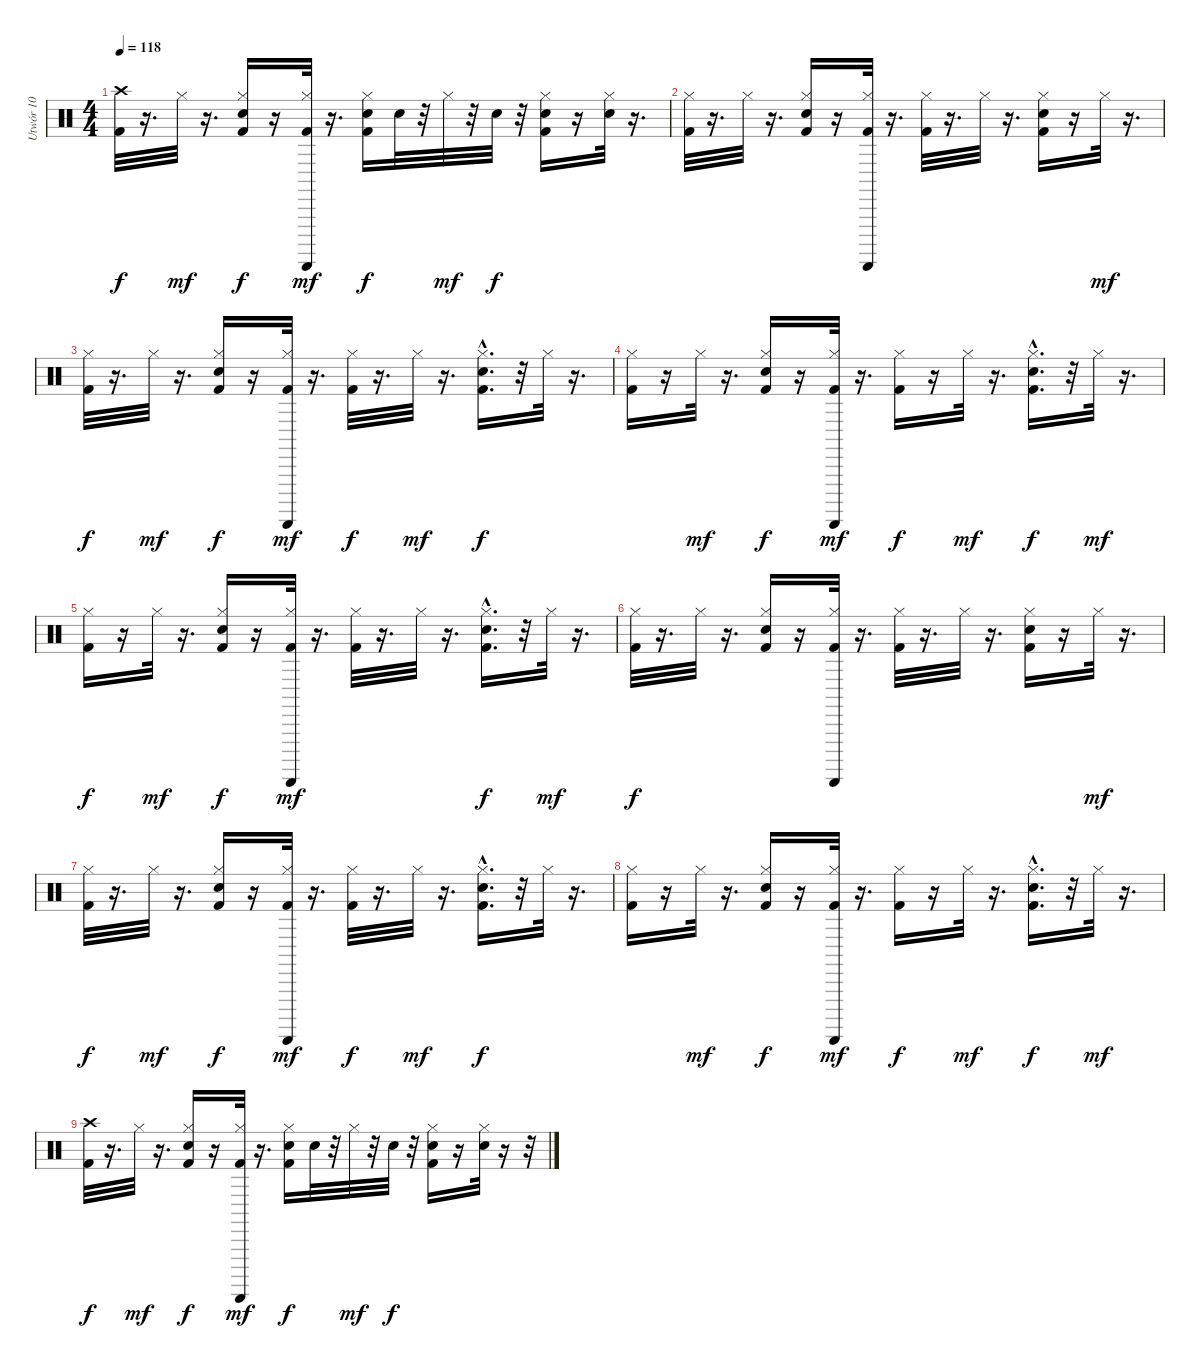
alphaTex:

\track ("Utwór 10" "Utwór 10") {instrument percussion}
\staff {score}
\articulation defaults
\ts (4 4)
\tempo 118
\clef neutral
\ks c
("Kick (hit) 2" "Crash high (hit)").32{dy f} r.16{d} "Hi-Hat (closed)".32{dy mf} r.16{d} ("Kick (hit) 2" "Snare (hit) 2" "Hi-Hat (closed)").16{dy f} r.16 ("Kick (hit) 2" "Hi-Hat (closed)" "Guiro (scrap-return)").32{dy mf} r.16{d} ("Kick (hit) 2" "Snare (hit) 2" "Hi-Hat (closed)").16{dy f} "Snare (hit) 2".32 r.32 "Hi-Hat (closed)".32{dy mf} r.32 "Snare (hit) 2".32{dy f} r.32 ("Kick (hit) 2" "Snare (hit) 2" "Hi-Hat (closed)").16 r.16 ("Snare (hit) 2" "Hi-Hat (closed)").32 r.16{d} |
("Kick (hit) 2" "Hi-Hat (closed)").32 r.16{d} "Hi-Hat (closed)".32 r.16{d} ("Kick (hit) 2" "Snare (hit) 2" "Hi-Hat (closed)").16 r.16 ("Kick (hit) 2" "Hi-Hat (closed)" "Guiro (scrap-return)").32 r.16{d} ("Kick (hit) 2" "Hi-Hat (closed)").32 r.16{d} "Hi-Hat (closed)".32 r.16{d} ("Kick (hit) 2" "Snare (hit) 2" "Hi-Hat (closed)").16 r.16 "Hi-Hat (closed)".32{dy mf} r.16{d} |
("Kick (hit) 2" "Hi-Hat (closed)").32{dy f} r.16{d} "Hi-Hat (closed)".32{dy mf} r.16{d} ("Kick (hit) 2" "Snare (hit) 2" "Hi-Hat (closed)").16{dy f} r.16 ("Kick (hit) 2" "Hi-Hat (closed)" "Guiro (scrap-return)").32{dy mf} r.16{d} ("Kick (hit) 2" "Hi-Hat (closed)").32{dy f} r.16{d} "Hi-Hat (closed)".32{dy mf} r.16{d} ("Kick (hit) 2" "Snare (hit) 2"{hac} "Hi-Hat (closed)").16{d dy f} r.32 "Hi-Hat (closed)".32 r.16{d} |
("Kick (hit) 2" "Hi-Hat (closed)").16 r.16 "Hi-Hat (closed)".32{dy mf} r.16{d} ("Kick (hit) 2" "Snare (hit) 2" "Hi-Hat (closed)").16{dy f} r.16 ("Kick (hit) 2" "Hi-Hat (closed)" "Guiro (scrap-return)").32{dy mf} r.16{d} ("Kick (hit) 2" "Hi-Hat (closed)").16{dy f} r.16 "Hi-Hat (closed)".32{dy mf} r.16{d} ("Kick (hit) 2" "Snare (hit) 2"{hac} "Hi-Hat (closed)").16{d dy f} r.32 "Hi-Hat (closed)".32{dy mf} r.16{d} |
("Kick (hit) 2" "Hi-Hat (closed)").16{dy f} r.16 "Hi-Hat (closed)".32{dy mf} r.16{d} ("Kick (hit) 2" "Snare (hit) 2" "Hi-Hat (closed)").16{dy f} r.16 ("Kick (hit) 2" "Hi-Hat (closed)" "Guiro (scrap-return)").32{dy mf} r.16{d} ("Kick (hit) 2" "Hi-Hat (closed)").32 r.16{d} "Hi-Hat (closed)".32 r.16{d} ("Kick (hit) 2" "Snare (hit) 2"{hac} "Hi-Hat (closed)").16{d dy f} r.32 "Hi-Hat (closed)".32{dy mf} r.16{d} |
("Kick (hit) 2" "Hi-Hat (closed)").32{dy f} r.16{d} "Hi-Hat (closed)".32 r.16{d} ("Kick (hit) 2" "Snare (hit) 2" "Hi-Hat (closed)").16 r.16 ("Kick (hit) 2" "Hi-Hat (closed)" "Guiro (scrap-return)").32 r.16{d} ("Kick (hit) 2" "Hi-Hat (closed)").32 r.16{d} "Hi-Hat (closed)".32 r.16{d} ("Kick (hit) 2" "Snare (hit) 2" "Hi-Hat (closed)").16 r.16 "Hi-Hat (closed)".32{dy mf} r.16{d} |
("Kick (hit) 2" "Hi-Hat (closed)").32{dy f} r.16{d} "Hi-Hat (closed)".32{dy mf} r.16{d} ("Kick (hit) 2" "Snare (hit) 2" "Hi-Hat (closed)").16{dy f} r.16 ("Kick (hit) 2" "Hi-Hat (closed)" "Guiro (scrap-return)").32{dy mf} r.16{d} ("Kick (hit) 2" "Hi-Hat (closed)").32{dy f} r.16{d} "Hi-Hat (closed)".32{dy mf} r.16{d} ("Kick (hit) 2" "Snare (hit) 2"{hac} "Hi-Hat (closed)").16{d dy f} r.32 "Hi-Hat (closed)".32 r.16{d} |
("Kick (hit) 2" "Hi-Hat (closed)").16 r.16 "Hi-Hat (closed)".32{dy mf} r.16{d} ("Kick (hit) 2" "Snare (hit) 2" "Hi-Hat (closed)").16{dy f} r.16 ("Kick (hit) 2" "Hi-Hat (closed)" "Guiro (scrap-return)").32{dy mf} r.16{d} ("Kick (hit) 2" "Hi-Hat (closed)").16{dy f} r.16 "Hi-Hat (closed)".32{dy mf} r.16{d} ("Kick (hit) 2" "Snare (hit) 2"{hac} "Hi-Hat (closed)").16{d dy f} r.32 "Hi-Hat (closed)".32{dy mf} r.16{d} |
("Kick (hit) 2" "Crash high (hit)").32{dy f} r.16{d} "Hi-Hat (closed)".32{dy mf} r.16{d} ("Kick (hit) 2" "Snare (hit) 2" "Hi-Hat (closed)").16{dy f} r.16 ("Kick (hit) 2" "Hi-Hat (closed)" "Guiro (scrap-return)").32{dy mf} r.16{d} ("Kick (hit) 2" "Snare (hit) 2" "Hi-Hat (closed)").16{dy f} "Snare (hit) 2".32 r.32 "Hi-Hat (closed)".32{dy mf} r.32 "Snare (hit) 2".32{dy f} r.32 ("Kick (hit) 2" "Snare (hit) 2" "Hi-Hat (closed)").16 r.16 ("Snare (hit) 2" "Hi-Hat (closed)").32 r.16 r.32
